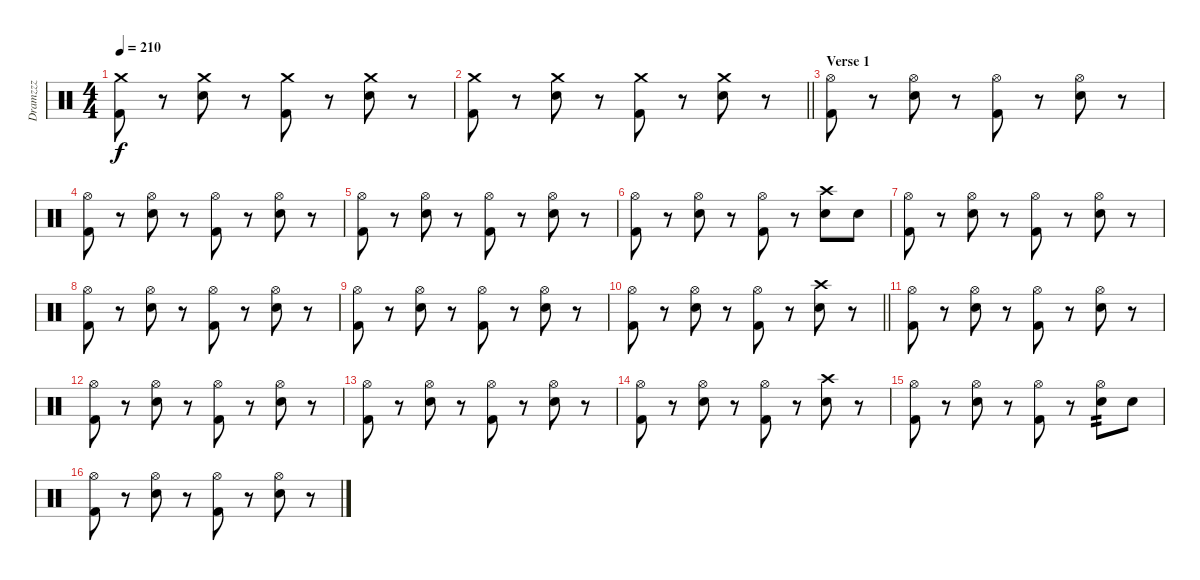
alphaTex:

\track ("Dramzzz" "Dramzzz") {instrument percussion}
\staff {score}
\articulation defaults
\ts (4 4)
\tempo 210
\clef neutral
\ks c
("Crash medium (hit)" "Kick (hit) 2").8{dy f} r.8 ("Crash medium (hit)" "Electric Snare (hit)").8 r.8 ("Crash medium (hit)" "Kick (hit) 2").8 r.8 ("Crash medium (hit)" "Electric Snare (hit)").8 r.8 |
\barLineRight lightlight
("Crash medium (hit)" "Kick (hit) 2").8 r.8 ("Crash medium (hit)" "Electric Snare (hit)").8 r.8 ("Crash medium (hit)" "Kick (hit) 2").8 r.8 ("Crash medium (hit)" "Electric Snare (hit)").8 r.8 |
\section ("" "Verse 1")
("Hi-Hat (open)" "Kick (hit) 2").8 r.8 ("Hi-Hat (open)" "Electric Snare (hit)").8 r.8 ("Hi-Hat (open)" "Kick (hit) 2").8 r.8 ("Hi-Hat (open)" "Electric Snare (hit)").8 r.8 |
("Hi-Hat (open)" "Kick (hit) 2").8 r.8 ("Hi-Hat (open)" "Electric Snare (hit)").8 r.8 ("Hi-Hat (open)" "Kick (hit) 2").8 r.8 ("Hi-Hat (open)" "Electric Snare (hit)").8 r.8 |
("Hi-Hat (open)" "Kick (hit) 2").8 r.8 ("Hi-Hat (open)" "Electric Snare (hit)").8 r.8 ("Hi-Hat (open)" "Kick (hit) 2").8 r.8 ("Hi-Hat (open)" "Electric Snare (hit)").8 r.8 |
("Hi-Hat (open)" "Kick (hit) 2").8 r.8 ("Hi-Hat (open)" "Electric Snare (hit)").8 r.8 ("Hi-Hat (open)" "Kick (hit) 2").8 r.8 ("Crash high (hit)" "Electric Snare (hit)").8 "Electric Snare (hit)".8 |
("Hi-Hat (open)" "Kick (hit) 2").8 r.8 ("Hi-Hat (open)" "Electric Snare (hit)").8 r.8 ("Hi-Hat (open)" "Kick (hit) 2").8 r.8 ("Hi-Hat (open)" "Electric Snare (hit)").8 r.8 |
("Hi-Hat (open)" "Kick (hit) 2").8 r.8 ("Hi-Hat (open)" "Electric Snare (hit)").8 r.8 ("Hi-Hat (open)" "Kick (hit) 2").8 r.8 ("Hi-Hat (open)" "Electric Snare (hit)").8 r.8 |
("Hi-Hat (open)" "Kick (hit) 2").8 r.8 ("Hi-Hat (open)" "Electric Snare (hit)").8 r.8 ("Hi-Hat (open)" "Kick (hit) 2").8 r.8 ("Hi-Hat (open)" "Electric Snare (hit)").8 r.8 |
\barLineRight lightlight
("Hi-Hat (open)" "Kick (hit) 2").8 r.8 ("Hi-Hat (open)" "Electric Snare (hit)").8 r.8 ("Hi-Hat (open)" "Kick (hit) 2").8 r.8 ("Crash high (hit)" "Electric Snare (hit)").8 r.8 |
("Hi-Hat (open)" "Kick (hit) 2").8 r.8 ("Hi-Hat (open)" "Electric Snare (hit)").8 r.8 ("Hi-Hat (open)" "Kick (hit) 2").8 r.8 ("Hi-Hat (open)" "Electric Snare (hit)").8 r.8 |
("Hi-Hat (open)" "Kick (hit) 2").8 r.8 ("Hi-Hat (open)" "Electric Snare (hit)").8 r.8 ("Hi-Hat (open)" "Kick (hit) 2").8 r.8 ("Hi-Hat (open)" "Electric Snare (hit)").8 r.8 |
("Hi-Hat (open)" "Kick (hit) 2").8 r.8 ("Hi-Hat (open)" "Electric Snare (hit)").8 r.8 ("Hi-Hat (open)" "Kick (hit) 2").8 r.8 ("Hi-Hat (open)" "Electric Snare (hit)").8 r.8 |
("Hi-Hat (open)" "Kick (hit) 2").8 r.8 ("Hi-Hat (open)" "Electric Snare (hit)").8 r.8 ("Hi-Hat (open)" "Kick (hit) 2").8 r.8 ("Crash high (hit)" "Electric Snare (hit)").8 r.8 |
("Hi-Hat (open)" "Kick (hit) 2").8 r.8 ("Hi-Hat (open)" "Electric Snare (hit)").8 r.8 ("Hi-Hat (open)" "Kick (hit) 2").8 r.8 ("Hi-Hat (open)" "Electric Snare (hit)").8{tp 2} "Electric Snare (hit)".8 |
("Hi-Hat (open)" "Kick (hit) 2").8 r.8 ("Hi-Hat (open)" "Electric Snare (hit)").8 r.8 ("Hi-Hat (open)" "Kick (hit) 2").8 r.8 ("Hi-Hat (open)" "Electric Snare (hit)").8 r.8
